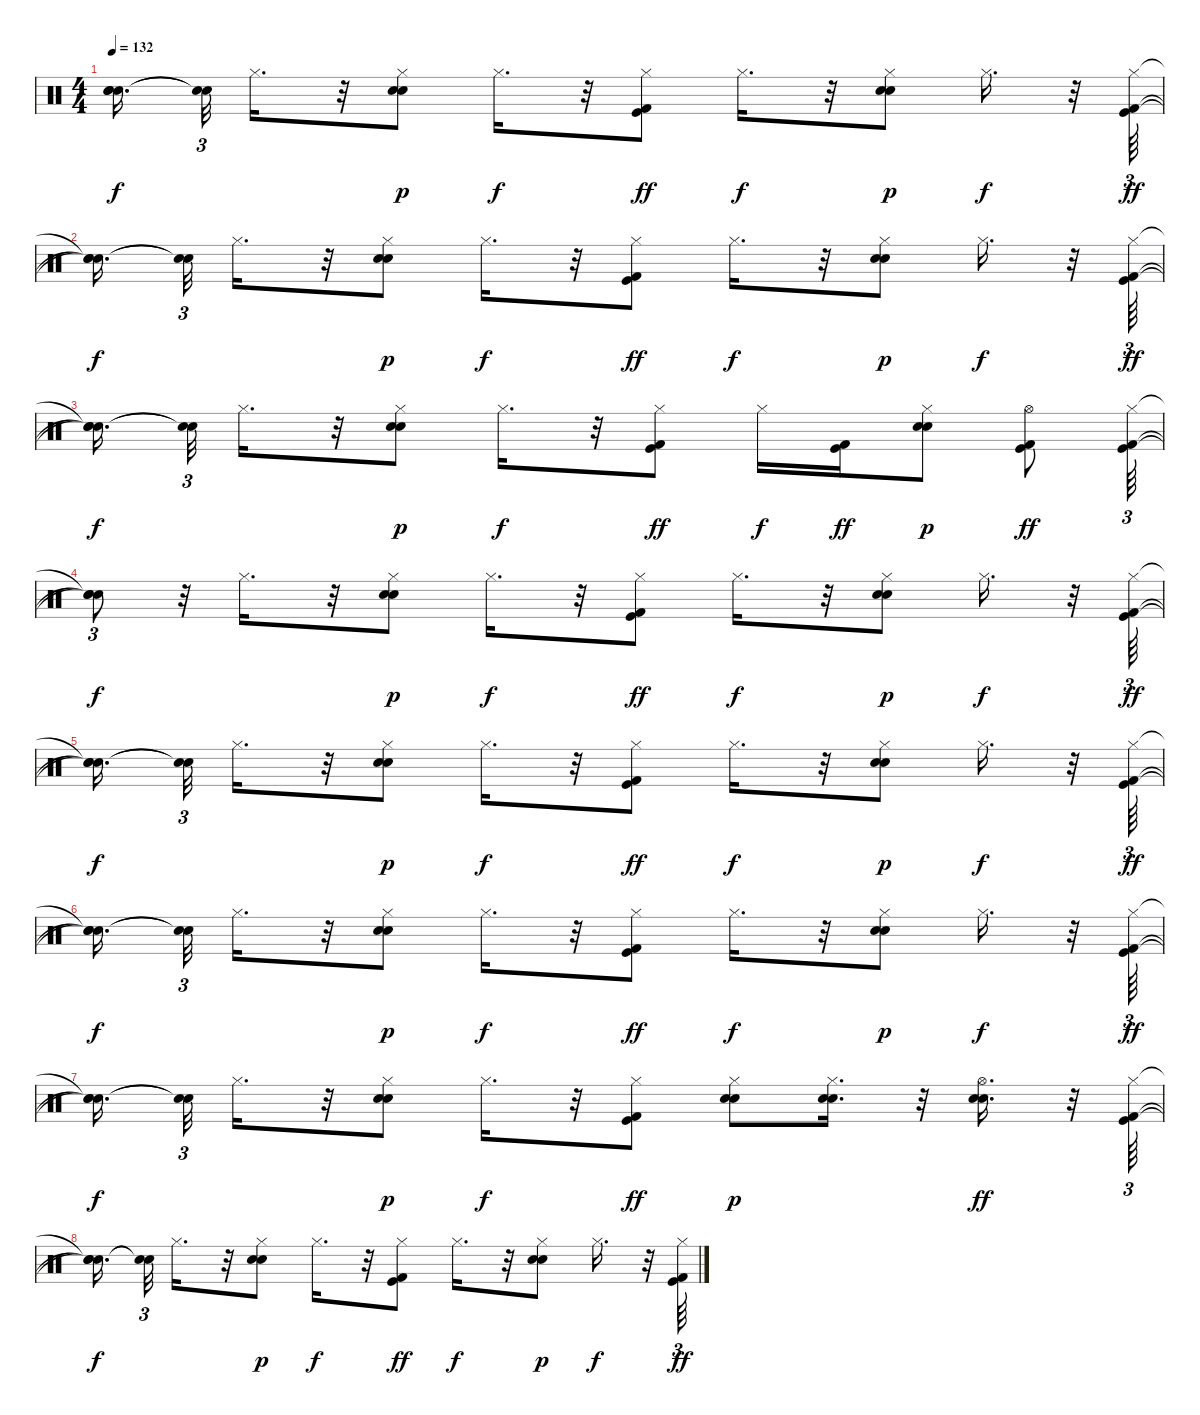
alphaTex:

\track "" {instrument percussion}
\staff {score}
\articulation defaults
\ts (4 4)
\tempo 132
\clef neutral
\ks c
("Snare (hit)"{t} "Snare (hit)"{t} "Snare (hit)"{t}).16{d dy f beam splitsecondary} ("Snare (hit)"{t} "Snare (hit)"{t}).32{tu (3 2)} "Hi-Hat (closed)".16{d} r.32 ("Electric Snare (hit)" "Snare (hit) 2" "Hi-Hat (closed)").8{dy p} "Hi-Hat (closed)".16{d dy f} r.32 ("Kick (hit) 2" "Kick (hit)" "Hi-Hat (closed)").8{dy ff} "Hi-Hat (closed)".16{d dy f} r.32 ("Electric Snare (hit)" "Snare (hit) 2" "Hi-Hat (closed)").8{dy p} "Hi-Hat (closed)".16{d dy f} r.32 ("Kick (hit) 2" "Kick (hit)" "Hi-Hat (closed)").64{tu (3 2) dy ff} |
("Snare (hit)"{t} "Snare (hit)"{t} "Snare (hit)"{t}).16{d dy f beam splitsecondary} ("Snare (hit)"{t} "Snare (hit)"{t}).32{tu (3 2)} "Hi-Hat (closed)".16{d} r.32 ("Electric Snare (hit)" "Snare (hit) 2" "Hi-Hat (closed)").8{dy p} "Hi-Hat (closed)".16{d dy f} r.32 ("Kick (hit) 2" "Kick (hit)" "Hi-Hat (closed)").8{dy ff} "Hi-Hat (closed)".16{d dy f} r.32 ("Electric Snare (hit)" "Snare (hit) 2" "Hi-Hat (closed)").8{dy p} "Hi-Hat (closed)".16{d dy f} r.32 ("Kick (hit) 2" "Kick (hit)" "Hi-Hat (closed)").64{tu (3 2) dy ff} |
("Snare (hit)"{t} "Snare (hit)"{t} "Snare (hit)"{t}).16{d dy f beam splitsecondary} ("Snare (hit)"{t} "Snare (hit)"{t}).32{tu (3 2)} "Hi-Hat (closed)".16{d} r.32 ("Electric Snare (hit)" "Snare (hit) 2" "Hi-Hat (closed)").8{dy p} "Hi-Hat (closed)".16{d dy f} r.32 ("Kick (hit) 2" "Kick (hit)" "Hi-Hat (closed)").8{dy ff} "Hi-Hat (closed)".16{dy f} ("Kick (hit) 2" "Kick (hit)").16{dy ff} ("Electric Snare (hit)" "Snare (hit) 2" "Hi-Hat (closed)").8{dy p} ("Kick (hit)" "Kick (hit) 2" "Hi-Hat (open)").8{dy ff} ("Kick (hit) 2" "Kick (hit)" "Hi-Hat (closed)").64{tu (3 2)} |
("Snare (hit)"{t} "Snare (hit)"{t} "Snare (hit)"{t}).8{tu (3 2) dy f} r.32 "Hi-Hat (closed)".16{d} r.32 ("Electric Snare (hit)" "Snare (hit) 2" "Hi-Hat (closed)").8{dy p} "Hi-Hat (closed)".16{d dy f} r.32 ("Kick (hit) 2" "Kick (hit)" "Hi-Hat (closed)").8{dy ff} "Hi-Hat (closed)".16{d dy f} r.32 ("Electric Snare (hit)" "Snare (hit) 2" "Hi-Hat (closed)").8{dy p} "Hi-Hat (closed)".16{d dy f} r.32 ("Kick (hit) 2" "Kick (hit)" "Hi-Hat (closed)").64{tu (3 2) dy ff} |
("Snare (hit)"{t} "Snare (hit)"{t} "Snare (hit)"{t}).16{d dy f beam splitsecondary} ("Snare (hit)"{t} "Snare (hit)"{t}).32{tu (3 2)} "Hi-Hat (closed)".16{d} r.32 ("Electric Snare (hit)" "Snare (hit) 2" "Hi-Hat (closed)").8{dy p} "Hi-Hat (closed)".16{d dy f} r.32 ("Kick (hit) 2" "Kick (hit)" "Hi-Hat (closed)").8{dy ff} "Hi-Hat (closed)".16{d dy f} r.32 ("Electric Snare (hit)" "Snare (hit) 2" "Hi-Hat (closed)").8{dy p} "Hi-Hat (closed)".16{d dy f} r.32 ("Kick (hit) 2" "Kick (hit)" "Hi-Hat (closed)").64{tu (3 2) dy ff} |
("Snare (hit)"{t} "Snare (hit)"{t} "Snare (hit)"{t}).16{d dy f beam splitsecondary} ("Snare (hit)"{t} "Snare (hit)"{t}).32{tu (3 2)} "Hi-Hat (closed)".16{d} r.32 ("Electric Snare (hit)" "Snare (hit) 2" "Hi-Hat (closed)").8{dy p} "Hi-Hat (closed)".16{d dy f} r.32 ("Kick (hit) 2" "Kick (hit)" "Hi-Hat (closed)").8{dy ff} "Hi-Hat (closed)".16{d dy f} r.32 ("Electric Snare (hit)" "Snare (hit) 2" "Hi-Hat (closed)").8{dy p} "Hi-Hat (closed)".16{d dy f} r.32 ("Kick (hit) 2" "Kick (hit)" "Hi-Hat (closed)").64{tu (3 2) dy ff} |
("Snare (hit)"{t} "Snare (hit)"{t} "Snare (hit)"{t}).16{d dy f beam splitsecondary} ("Snare (hit)"{t} "Snare (hit)"{t}).32{tu (3 2)} "Hi-Hat (closed)".16{d} r.32 ("Electric Snare (hit)" "Snare (hit) 2" "Hi-Hat (closed)").8{dy p} "Hi-Hat (closed)".16{d dy f} r.32 ("Kick (hit) 2" "Kick (hit)" "Hi-Hat (closed)").8{dy ff} ("Electric Snare (hit)" "Snare (hit) 2" "Hi-Hat (closed)").8{dy p} ("Electric Snare (hit)" "Snare (hit) 2" "Hi-Hat (closed)").16{d} r.32 ("Snare (hit) 2" "Electric Snare (hit)" "Hi-Hat (open)").16{d dy ff} r.32 ("Kick (hit) 2" "Kick (hit)" "Hi-Hat (closed)").64{tu (3 2)} |
("Snare (hit)"{t} "Snare (hit)"{t} "Snare (hit)"{t}).16{d dy f beam splitsecondary} ("Snare (hit)"{t} "Snare (hit)"{t}).32{tu (3 2)} "Hi-Hat (closed)".16{d} r.32 ("Electric Snare (hit)" "Snare (hit) 2" "Hi-Hat (closed)").8{dy p} "Hi-Hat (closed)".16{d dy f} r.32 ("Kick (hit) 2" "Kick (hit)" "Hi-Hat (closed)").8{dy ff} "Hi-Hat (closed)".16{d dy f} r.32 ("Electric Snare (hit)" "Snare (hit) 2" "Hi-Hat (closed)").8{dy p} "Hi-Hat (closed)".16{d dy f} r.32 ("Kick (hit) 2" "Kick (hit)" "Hi-Hat (closed)").64{tu (3 2) dy ff}
